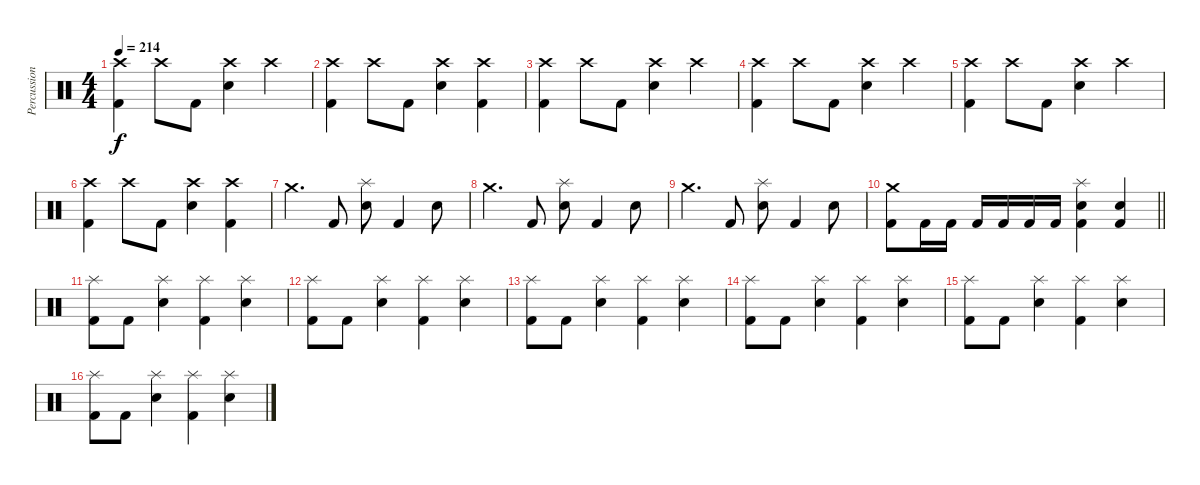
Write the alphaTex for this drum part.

\track ("Percussion" "Percussion") {instrument percussion}
\staff {score}
\articulation defaults
\ts (4 4)
\tempo 214
\clef neutral
\ks c
("Crash high (hit)" "Kick (hit) 2").4{dy f} "Crash high (hit)".8 "Kick (hit) 2".8 ("Crash high (hit)" "Electric Snare (hit)").4 "Crash high (hit)".4 |
("Crash high (hit)" "Kick (hit) 2").4 "Crash high (hit)".8 "Kick (hit) 2".8 ("Crash high (hit)" "Electric Snare (hit)").4 ("Crash high (hit)" "Kick (hit) 2").4 |
("Crash high (hit)" "Kick (hit) 2").4 "Crash high (hit)".8 "Kick (hit) 2".8 ("Crash high (hit)" "Electric Snare (hit)").4 "Crash high (hit)".4 |
("Crash high (hit)" "Kick (hit) 2").4 "Crash high (hit)".8 "Kick (hit) 2".8 ("Crash high (hit)" "Electric Snare (hit)").4 "Crash high (hit)".4 |
("Crash high (hit)" "Kick (hit) 2").4 "Crash high (hit)".8 "Kick (hit) 2".8 ("Crash high (hit)" "Electric Snare (hit)").4 "Crash high (hit)".4 |
("Crash high (hit)" "Kick (hit) 2").4 "Crash high (hit)".8 "Kick (hit) 2".8 ("Crash high (hit)" "Electric Snare (hit)").4 ("Crash high (hit)" "Kick (hit) 2").4 |
"Crash medium (hit)".4{d} "Kick (hit) 2".8 ("Splash (hit)" "Electric Snare (hit)").8 "Kick (hit) 2".4 "Electric Snare (hit)".8 |
"Crash medium (hit)".4{d} "Kick (hit) 2".8 ("Splash (hit)" "Electric Snare (hit)").8 "Kick (hit) 2".4 "Electric Snare (hit)".8 |
"Crash medium (hit)".4{d} "Kick (hit) 2".8 ("Splash (hit)" "Electric Snare (hit)").8 "Kick (hit) 2".4 "Electric Snare (hit)".8 |
\barLineRight lightlight
("Crash medium (hit)" "Kick (hit) 2").8 "Kick (hit) 2".16 "Kick (hit) 2".16 "Kick (hit) 2".16 "Kick (hit) 2".16 "Kick (hit) 2".16 "Kick (hit) 2".16 ("Splash (hit)" "Electric Snare (hit)" "Kick (hit) 2").4 ("Electric Snare (hit)" "Kick (hit) 2").4 |
\section ("" "")
("Splash (hit)" "Kick (hit) 2").8 "Kick (hit) 2".8 ("Splash (hit)" "Electric Snare (hit)").4 ("Splash (hit)" "Kick (hit) 2").4 ("Splash (hit)" "Electric Snare (hit)").4 |
("Splash (hit)" "Kick (hit) 2").8 "Kick (hit) 2".8 ("Splash (hit)" "Electric Snare (hit)").4 ("Splash (hit)" "Kick (hit) 2").4 ("Splash (hit)" "Electric Snare (hit)").4 |
("Splash (hit)" "Kick (hit) 2").8 "Kick (hit) 2".8 ("Splash (hit)" "Electric Snare (hit)").4 ("Splash (hit)" "Kick (hit) 2").4 ("Splash (hit)" "Electric Snare (hit)").4 |
("Splash (hit)" "Kick (hit) 2").8 "Kick (hit) 2".8 ("Splash (hit)" "Electric Snare (hit)").4 ("Splash (hit)" "Kick (hit) 2").4 ("Splash (hit)" "Electric Snare (hit)").4 |
("Splash (hit)" "Kick (hit) 2").8 "Kick (hit) 2".8 ("Splash (hit)" "Electric Snare (hit)").4 ("Splash (hit)" "Kick (hit) 2").4 ("Splash (hit)" "Electric Snare (hit)").4 |
("Splash (hit)" "Kick (hit) 2").8 "Kick (hit) 2".8 ("Splash (hit)" "Electric Snare (hit)").4 ("Splash (hit)" "Kick (hit) 2").4 ("Splash (hit)" "Electric Snare (hit)").4
